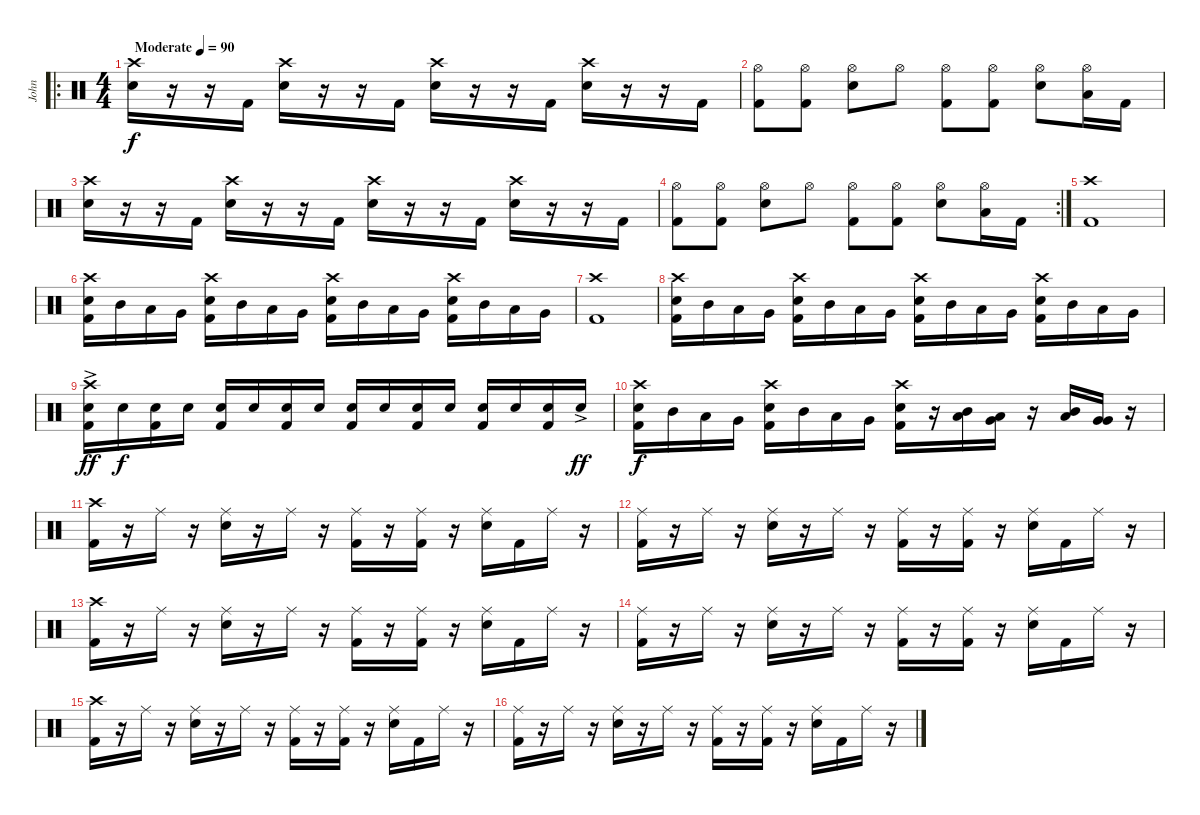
\track ("John" "John") {instrument percussion}
\staff {score}
\articulation defaults
\ro
\ts (4 4)
\tempo (90 "Moderate")
\clef neutral
\ks c
("Crash high (hit)" "Snare (hit) 2").16{dy f} r.16 r.16 "Kick (hit) 2".16 ("Crash high (hit)" "Snare (hit) 2").16 r.16 r.16 "Kick (hit) 2".16 ("Crash high (hit)" "Snare (hit) 2").16 r.16 r.16 "Kick (hit) 2".16 ("Crash high (hit)" "Snare (hit) 2").16 r.16 r.16 "Kick (hit) 2".16 |
("Hi-Hat (open)" "Kick (hit) 2").8 ("Hi-Hat (open)" "Kick (hit) 2").8 ("Hi-Hat (open)" "Snare (hit) 2").8 "Hi-Hat (open)".8 ("Hi-Hat (open)" "Kick (hit) 2").8 ("Hi-Hat (open)" "Kick (hit) 2").8 ("Hi-Hat (open)" "Snare (hit) 2").8 ("Hi-Hat (open)" "Low Tom (hit)").16 "Kick (hit) 2".16 |
("Crash high (hit)" "Snare (hit) 2").16 r.16 r.16 "Kick (hit) 2".16 ("Crash high (hit)" "Snare (hit) 2").16 r.16 r.16 "Kick (hit) 2".16 ("Crash high (hit)" "Snare (hit) 2").16 r.16 r.16 "Kick (hit) 2".16 ("Crash high (hit)" "Snare (hit) 2").16 r.16 r.16 "Kick (hit) 2".16 |
\rc 2
("Hi-Hat (open)" "Kick (hit) 2").8 ("Hi-Hat (open)" "Kick (hit) 2").8 ("Hi-Hat (open)" "Snare (hit) 2").8 "Hi-Hat (open)".8 ("Hi-Hat (open)" "Kick (hit) 2").8 ("Hi-Hat (open)" "Kick (hit) 2").8 ("Hi-Hat (open)" "Snare (hit) 2").8 ("Hi-Hat (open)" "Low Tom (hit)").16 "Kick (hit) 2".16 |
("Crash high (hit)" "Kick (hit) 2").1 |
("Crash high (hit)" "Snare (hit) 2" "Kick (hit) 2").16 "Mid Tom (hit)".16 "Low Tom (hit)".16 "Very Low Tom (hit)".16 ("Crash high (hit)" "Snare (hit) 2" "Kick (hit) 2").16 "Mid Tom (hit)".16 "Low Tom (hit)".16 "Very Low Tom (hit)".16 ("Crash high (hit)" "Snare (hit) 2" "Kick (hit) 2").16 "Mid Tom (hit)".16 "Low Tom (hit)".16 "Very Low Tom (hit)".16 ("Crash high (hit)" "Snare (hit) 2" "Kick (hit) 2").16 "Mid Tom (hit)".16 "Low Tom (hit)".16 "Very Low Tom (hit)".16 |
("Crash high (hit)" "Kick (hit) 2").1 |
("Crash high (hit)" "Snare (hit) 2" "Kick (hit) 2").16 "Mid Tom (hit)".16 "Low Tom (hit)".16 "Very Low Tom (hit)".16 ("Crash high (hit)" "Snare (hit) 2" "Kick (hit) 2").16 "Mid Tom (hit)".16 "Low Tom (hit)".16 "Very Low Tom (hit)".16 ("Crash high (hit)" "Snare (hit) 2" "Kick (hit) 2").16 "Mid Tom (hit)".16 "Low Tom (hit)".16 "Very Low Tom (hit)".16 ("Crash high (hit)" "Snare (hit) 2" "Kick (hit) 2").16 "Mid Tom (hit)".16 "Low Tom (hit)".16 "Very Low Tom (hit)".16 |
("Crash high (hit)" "Snare (hit) 2"{ac} "Kick (hit) 2").16{dy ff} "Snare (hit) 2".16{dy f} ("Snare (hit) 2" "Kick (hit) 2").16 "Snare (hit) 2".16 ("Snare (hit) 2" "Kick (hit) 2").16 "Snare (hit) 2".16 ("Snare (hit) 2" "Kick (hit) 2").16 "Snare (hit) 2".16 ("Snare (hit) 2" "Kick (hit) 2").16 "Snare (hit) 2".16 ("Snare (hit) 2" "Kick (hit) 2").16 "Snare (hit) 2".16 ("Snare (hit) 2" "Kick (hit) 2").16 "Snare (hit) 2".16 ("Snare (hit) 2" "Kick (hit) 2").16 "Snare (hit) 2"{ac}.16{dy ff} |
("Crash high (hit)" "Snare (hit) 2" "Kick (hit) 2").16{dy f} "Mid Tom (hit)".16 "Low Tom (hit)".16 "Very Low Tom (hit)".16 ("Crash high (hit)" "Snare (hit) 2" "Kick (hit) 2").16 "Mid Tom (hit)".16 "Low Tom (hit)".16 "Very Low Tom (hit)".16 ("Crash high (hit)" "Snare (hit) 2" "Kick (hit) 2").16 r.16 ("Low Tom (hit)" "Mid Tom (hit)").16 ("Very Low Tom (hit)" "Low Tom (hit)").16 r.16 ("Mid Tom (hit)" "Low Tom (hit)").16 ("Very Low Tom (hit)" "Very Low Tom (hit)").16 r.16 |
("Crash high (hit)" "Kick (hit) 2").16 r.16 "Ride (middle)".16 r.16 ("Ride (middle)" "Snare (hit) 2").16 r.16 "Ride (middle)".16 r.16 ("Ride (middle)" "Kick (hit) 2").16 r.16 ("Ride (middle)" "Kick (hit) 2").16 r.16 ("Ride (middle)" "Snare (hit) 2").16 "Kick (hit) 2".16 "Ride (middle)".16 r.16 |
("Ride (middle)" "Kick (hit) 2").16 r.16 "Ride (middle)".16 r.16 ("Ride (middle)" "Snare (hit) 2").16 r.16 "Ride (middle)".16 r.16 ("Ride (middle)" "Kick (hit) 2").16 r.16 ("Ride (middle)" "Kick (hit) 2").16 r.16 ("Ride (middle)" "Snare (hit) 2").16 "Kick (hit) 2".16 "Ride (middle)".16 r.16 |
("Crash high (hit)" "Kick (hit) 2").16 r.16 "Ride (middle)".16 r.16 ("Ride (middle)" "Snare (hit) 2").16 r.16 "Ride (middle)".16 r.16 ("Ride (middle)" "Kick (hit) 2").16 r.16 ("Ride (middle)" "Kick (hit) 2").16 r.16 ("Ride (middle)" "Snare (hit) 2").16 "Kick (hit) 2".16 "Ride (middle)".16 r.16 |
("Ride (middle)" "Kick (hit) 2").16 r.16 "Ride (middle)".16 r.16 ("Ride (middle)" "Snare (hit) 2").16 r.16 "Ride (middle)".16 r.16 ("Ride (middle)" "Kick (hit) 2").16 r.16 ("Ride (middle)" "Kick (hit) 2").16 r.16 ("Ride (middle)" "Snare (hit) 2").16 "Kick (hit) 2".16 "Ride (middle)".16 r.16 |
("Crash high (hit)" "Kick (hit) 2").16 r.16 "Ride (middle)".16 r.16 ("Ride (middle)" "Snare (hit) 2").16 r.16 "Ride (middle)".16 r.16 ("Ride (middle)" "Kick (hit) 2").16 r.16 ("Ride (middle)" "Kick (hit) 2").16 r.16 ("Ride (middle)" "Snare (hit) 2").16 "Kick (hit) 2".16 "Ride (middle)".16 r.16 |
("Ride (middle)" "Kick (hit) 2").16 r.16 "Ride (middle)".16 r.16 ("Ride (middle)" "Snare (hit) 2").16 r.16 "Ride (middle)".16 r.16 ("Ride (middle)" "Kick (hit) 2").16 r.16 ("Ride (middle)" "Kick (hit) 2").16 r.16 ("Ride (middle)" "Snare (hit) 2").16 "Kick (hit) 2".16 "Ride (middle)".16 r.16
